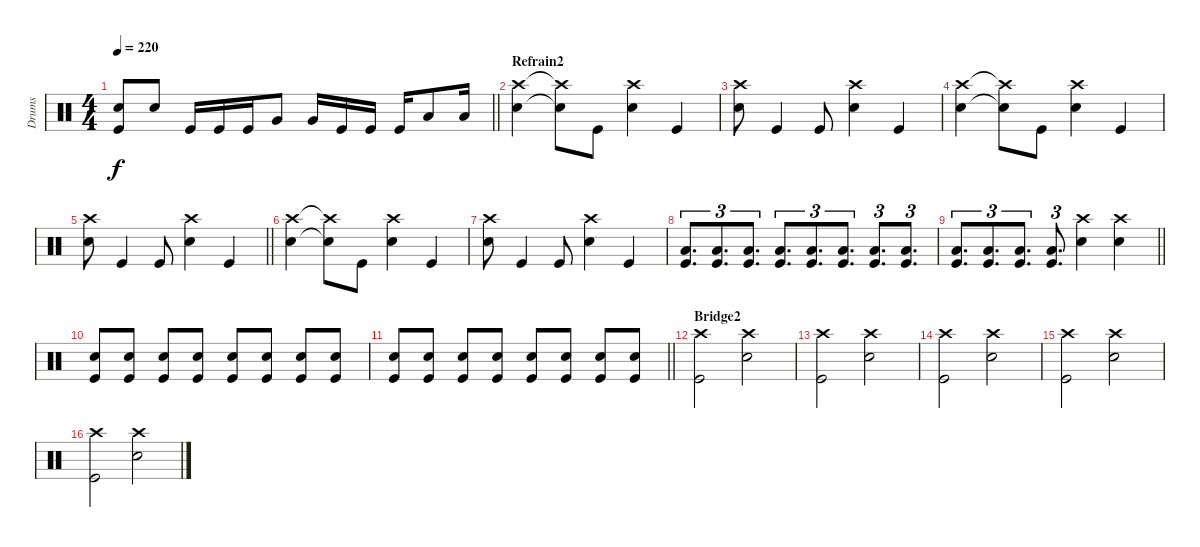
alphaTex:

\track ("Drums" "Drums") {instrument percussion}
\staff {score}
\articulation defaults
\ts (4 4)
\tempo 220
\clef neutral
\barLineRight lightlight
\ks c
("Snare (hit) 2" "Kick (hit)").8{dy f} "Snare (hit) 2".8 "Kick (hit)".16 "Kick (hit)".16 "Kick (hit)".16 "Very Low Tom (hit)".8 "Very Low Tom (hit)".16 "Kick (hit)".16 "Kick (hit)".16 "Kick (hit)".16 "Low Floor Tom (hit)".8 "Low Floor Tom (hit)".16 |
\section ("" "Refrain2")
("Crash high (hit)" "Snare (hit) 2").4 ("Crash high (hit)"{t} "Snare (hit) 2"{t}).8 "Kick (hit)".8 ("Crash high (hit)" "Snare (hit) 2").4 "Kick (hit)".4 |
("Crash high (hit)" "Snare (hit) 2").8 "Kick (hit)".4 "Kick (hit)".8 ("Crash high (hit)" "Snare (hit) 2").4 "Kick (hit)".4 |
("Crash high (hit)" "Snare (hit) 2").4 ("Crash high (hit)"{t} "Snare (hit) 2"{t}).8 "Kick (hit)".8 ("Crash high (hit)" "Snare (hit) 2").4 "Kick (hit)".4 |
\barLineRight lightlight
("Crash high (hit)" "Snare (hit) 2").8 "Kick (hit)".4 "Kick (hit)".8 ("Crash high (hit)" "Snare (hit) 2").4 "Kick (hit)".4 |
("Crash high (hit)" "Snare (hit) 2").4 ("Crash high (hit)"{t} "Snare (hit) 2"{t}).8 "Kick (hit)".8 ("Crash high (hit)" "Snare (hit) 2").4 "Kick (hit)".4 |
("Crash high (hit)" "Snare (hit) 2").8 "Kick (hit)".4 "Kick (hit)".8 ("Crash high (hit)" "Snare (hit) 2").4 "Kick (hit)".4 |
("Low Floor Tom (hit)" "Kick (hit)").8{d tu (3 2)} ("Low Floor Tom (hit)" "Kick (hit)").8{d tu (3 2)} ("Low Floor Tom (hit)" "Kick (hit)").8{d tu (3 2)} ("Low Floor Tom (hit)" "Kick (hit)").8{d tu (3 2)} ("Low Floor Tom (hit)" "Kick (hit)").8{d tu (3 2)} ("Low Floor Tom (hit)" "Kick (hit)").8{d tu (3 2)} ("Low Floor Tom (hit)" "Kick (hit)").8{d tu (3 2)} ("Low Floor Tom (hit)" "Kick (hit)").8{d tu (3 2)} |
\barLineRight lightlight
("Low Floor Tom (hit)" "Kick (hit)").8{d tu (3 2)} ("Low Floor Tom (hit)" "Kick (hit)").8{d tu (3 2)} ("Low Floor Tom (hit)" "Kick (hit)").8{d tu (3 2)} ("Low Floor Tom (hit)" "Kick (hit)").8{d tu (3 2)} ("Crash high (hit)" "Snare (hit) 2").4 ("Crash high (hit)" "Snare (hit) 2").4 |
("Snare (hit) 2" "Kick (hit)").8 ("Snare (hit) 2" "Kick (hit)").8 ("Snare (hit) 2" "Kick (hit)").8 ("Snare (hit) 2" "Kick (hit)").8 ("Snare (hit) 2" "Kick (hit)").8 ("Snare (hit) 2" "Kick (hit)").8 ("Snare (hit) 2" "Kick (hit)").8 ("Snare (hit) 2" "Kick (hit)").8 |
\barLineRight lightlight
("Snare (hit) 2" "Kick (hit)").8 ("Snare (hit) 2" "Kick (hit)").8 ("Snare (hit) 2" "Kick (hit)").8 ("Snare (hit) 2" "Kick (hit)").8 ("Snare (hit) 2" "Kick (hit)").8 ("Snare (hit) 2" "Kick (hit)").8 ("Snare (hit) 2" "Kick (hit)").8 ("Snare (hit) 2" "Kick (hit)").8 |
\section ("" "Bridge2")
("Crash high (hit)" "Kick (hit)").2 ("Crash high (hit)" "Snare (hit) 2").2 |
("Crash high (hit)" "Kick (hit)").2 ("Crash high (hit)" "Snare (hit) 2").2 |
("Crash high (hit)" "Kick (hit)").2 ("Crash high (hit)" "Snare (hit) 2").2 |
("Crash high (hit)" "Kick (hit)").2 ("Crash high (hit)" "Snare (hit) 2").2 |
("Crash high (hit)" "Kick (hit)").2 ("Crash high (hit)" "Snare (hit) 2").2
